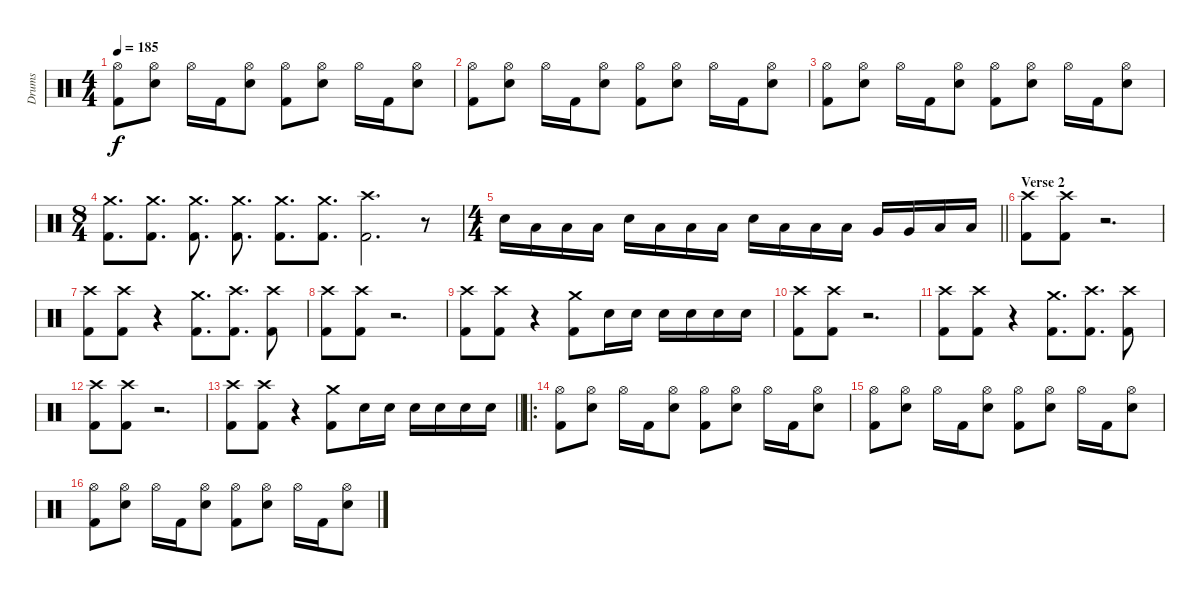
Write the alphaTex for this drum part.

\track ("Drums" "Drums") {instrument percussion}
\staff {score}
\articulation defaults
\ts (4 4)
\tempo 185
\clef neutral
\ks c
("Hi-Hat (open)" "Kick (hit) 2").8{dy f} ("Hi-Hat (open)" "Electric Snare (hit)").8 "Hi-Hat (open)".16 "Kick (hit) 2".16 ("Hi-Hat (open)" "Electric Snare (hit)").8 ("Hi-Hat (open)" "Kick (hit) 2").8 ("Hi-Hat (open)" "Electric Snare (hit)").8 "Hi-Hat (open)".16 "Kick (hit) 2".16 ("Hi-Hat (open)" "Electric Snare (hit)").8 |
("Hi-Hat (open)" "Kick (hit) 2").8 ("Hi-Hat (open)" "Electric Snare (hit)").8 "Hi-Hat (open)".16 "Kick (hit) 2".16 ("Hi-Hat (open)" "Electric Snare (hit)").8 ("Hi-Hat (open)" "Kick (hit) 2").8 ("Hi-Hat (open)" "Electric Snare (hit)").8 "Hi-Hat (open)".16 "Kick (hit) 2".16 ("Hi-Hat (open)" "Electric Snare (hit)").8 |
("Hi-Hat (open)" "Kick (hit) 2").8 ("Hi-Hat (open)" "Electric Snare (hit)").8 "Hi-Hat (open)".16 "Kick (hit) 2".16 ("Hi-Hat (open)" "Electric Snare (hit)").8 ("Hi-Hat (open)" "Kick (hit) 2").8 ("Hi-Hat (open)" "Electric Snare (hit)").8 "Hi-Hat (open)".16 "Kick (hit) 2".16 ("Hi-Hat (open)" "Electric Snare (hit)").8 |
\ts (8 4)
("Crash medium (hit)" "Kick (hit) 2").8{d} ("Crash medium (hit)" "Kick (hit) 2").8{d} ("Crash medium (hit)" "Kick (hit) 2").8{d} ("Crash medium (hit)" "Kick (hit) 2").8{d} ("Crash medium (hit)" "Kick (hit) 2").8{d} ("Crash medium (hit)" "Kick (hit) 2").8{d} ("Crash high (hit)" "Kick (hit) 2").2{d} r.8 |
\ts (4 4)
\barLineRight lightlight "Electric Snare (hit)".16 "Low Tom (hit)".16 "Low Tom (hit)".16 "Low Tom (hit)".16 "Electric Snare (hit)".16 "Low Tom (hit)".16 "Low Tom (hit)".16 "Low Tom (hit)".16 "Electric Snare (hit)".16 "Low Tom (hit)".16 "Low Tom (hit)".16 "Low Tom (hit)".16 "Very Low Tom (hit)".16 "Very Low Tom (hit)".16 "Low Floor Tom (hit)".16 "Low Floor Tom (hit)".16
|
\section ("" "Verse 2")
("Crash high (hit)" "Kick (hit) 2").8 ("Crash high (hit)" "Kick (hit) 2").8 r.2{d} |
("Crash high (hit)" "Kick (hit) 2").8 ("Crash high (hit)" "Kick (hit) 2").8 r.4 ("Crash medium (hit)" "Kick (hit) 2").8{d} ("Crash high (hit)" "Kick (hit) 2").8{d} ("Crash high (hit)" "Kick (hit) 2").8 |
("Crash high (hit)" "Kick (hit) 2").8 ("Crash high (hit)" "Kick (hit) 2").8 r.2{d} |
("Crash high (hit)" "Kick (hit) 2").8 ("Crash high (hit)" "Kick (hit) 2").8 r.4 ("Crash medium (hit)" "Kick (hit) 2").8 "Electric Snare (hit)".16 "Electric Snare (hit)".16 "Electric Snare (hit)".16 "Electric Snare (hit)".16 "Electric Snare (hit)".16 "Electric Snare (hit)".16 |
("Crash high (hit)" "Kick (hit) 2").8 ("Crash high (hit)" "Kick (hit) 2").8 r.2{d} |
("Crash high (hit)" "Kick (hit) 2").8 ("Crash high (hit)" "Kick (hit) 2").8 r.4 ("Crash medium (hit)" "Kick (hit) 2").8{d} ("Crash high (hit)" "Kick (hit) 2").8{d} ("Crash high (hit)" "Kick (hit) 2").8 |
("Crash high (hit)" "Kick (hit) 2").8 ("Crash high (hit)" "Kick (hit) 2").8 r.2{d} |
\barLineRight lightlight
("Crash high (hit)" "Kick (hit) 2").8 ("Crash high (hit)" "Kick (hit) 2").8 r.4 ("Crash medium (hit)" "Kick (hit) 2").8 "Electric Snare (hit)".16 "Electric Snare (hit)".16 "Electric Snare (hit)".16 "Electric Snare (hit)".16 "Electric Snare (hit)".16 "Electric Snare (hit)".16 |
\ro
("Hi-Hat (open)" "Kick (hit) 2").8 ("Hi-Hat (open)" "Electric Snare (hit)").8 "Hi-Hat (open)".16 "Kick (hit) 2".16 ("Hi-Hat (open)" "Electric Snare (hit)").8 ("Hi-Hat (open)" "Kick (hit) 2").8 ("Hi-Hat (open)" "Electric Snare (hit)").8 "Hi-Hat (open)".16 "Kick (hit) 2".16 ("Hi-Hat (open)" "Electric Snare (hit)").8 |
("Hi-Hat (open)" "Kick (hit) 2").8 ("Hi-Hat (open)" "Electric Snare (hit)").8 "Hi-Hat (open)".16 "Kick (hit) 2".16 ("Hi-Hat (open)" "Electric Snare (hit)").8 ("Hi-Hat (open)" "Kick (hit) 2").8 ("Hi-Hat (open)" "Electric Snare (hit)").8 "Hi-Hat (open)".16 "Kick (hit) 2".16 ("Hi-Hat (open)" "Electric Snare (hit)").8 |
("Hi-Hat (open)" "Kick (hit) 2").8 ("Hi-Hat (open)" "Electric Snare (hit)").8 "Hi-Hat (open)".16 "Kick (hit) 2".16 ("Hi-Hat (open)" "Electric Snare (hit)").8 ("Hi-Hat (open)" "Kick (hit) 2").8 ("Hi-Hat (open)" "Electric Snare (hit)").8 "Hi-Hat (open)".16 "Kick (hit) 2".16 ("Hi-Hat (open)" "Electric Snare (hit)").8
